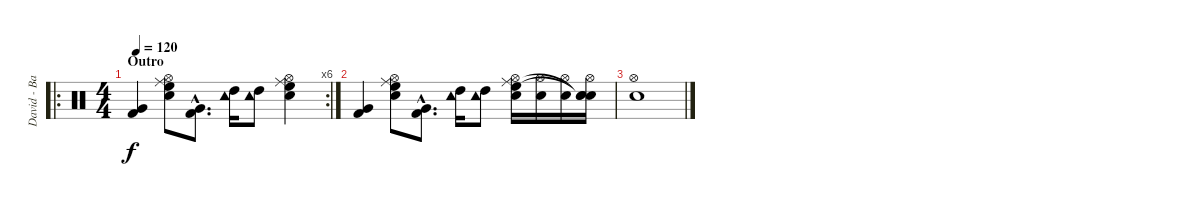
\track ("David - Batterie" "David - Ba") {instrument percussion}
\staff {score}
\articulation defaults
\ro
\rc 6
\ts (4 4)
\section ("" "Outro")
\tempo 120
\clef neutral
\ks c
("Kick (hit) 2" "Very Low Tom (hit)").4{dy f} ("Snare (hit) 2" "Hi-Hat (open)" "High Floor Tom (hit)" "Ride (middle)").8 ("Kick (hit) 2"{hac} "Very Low Tom (hit)"{hac}).8{d} ("High Tom (hit)" "Tambourine (hit)").16 ("High Tom (hit)" "Tambourine (hit)").8 ("Snare (hit) 2" "Hi-Hat (open)" "High Floor Tom (hit)" "Ride (middle)").4 |
("Kick (hit) 2" "Very Low Tom (hit)").4 ("Snare (hit) 2" "Hi-Hat (open)" "High Floor Tom (hit)" "Ride (middle)").8 ("Kick (hit) 2"{hac} "Very Low Tom (hit)"{hac}).8{d} ("High Tom (hit)" "Tambourine (hit)").16 ("High Tom (hit)" "Tambourine (hit)").8 ("Snare (hit) 2" "Hi-Hat (open)" "High Floor Tom (hit)" "Ride (middle)").16 ("Snare (hit) 2" "Hi-Hat (open)").16 ("Snare (hit) 2" "Hi-Hat (open)").16 ("Snare (hit) 2" "Hi-Hat (open)" "Snare (hit)"{t} "Snare (hit)"{t}).16 |
("Snare (hit) 2" "Hi-Hat (open)").1
